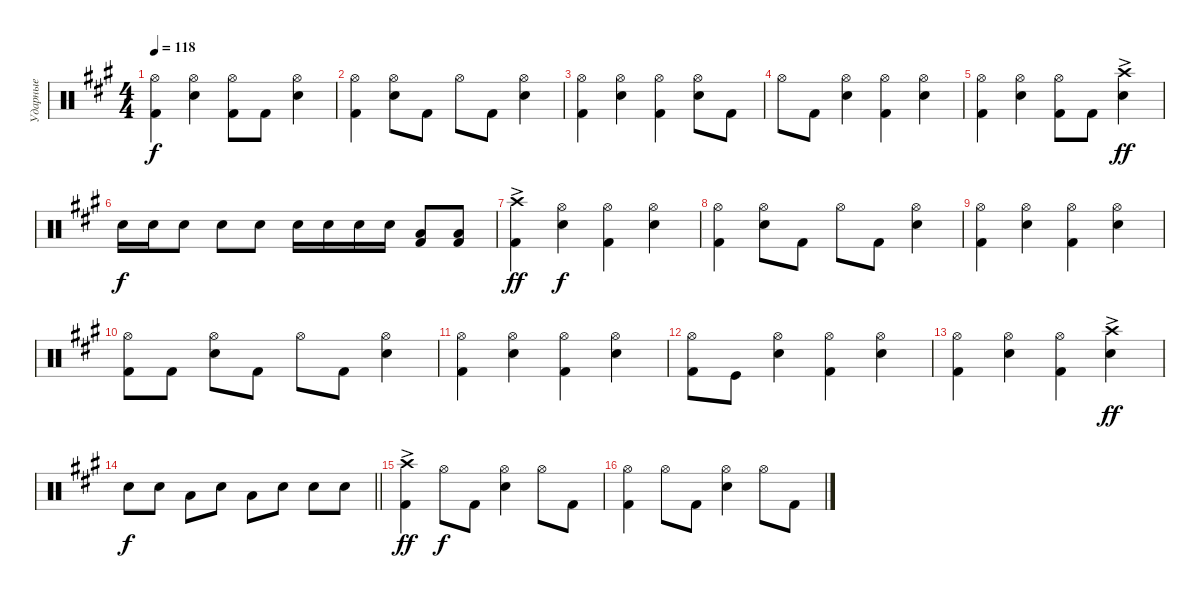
\track ("Ударные" "Ударные") {instrument percussion}
\staff {score}
\articulation defaults
\ts (4 4)
\tempo 118
\clef neutral
\ks a
("Kick (hit) 2" "Hi-Hat (open)").4{dy f} ("Snare (hit) 2" "Hi-Hat (open)").4 ("Kick (hit) 2" "Hi-Hat (open)").8 "Kick (hit) 2".8 ("Snare (hit) 2" "Hi-Hat (open)").4 |
("Kick (hit) 2" "Hi-Hat (open)").4 ("Snare (hit) 2" "Hi-Hat (open)").8 "Kick (hit) 2".8 "Hi-Hat (open)".8 "Kick (hit) 2".8 ("Snare (hit) 2" "Hi-Hat (open)").4 |
("Kick (hit) 2" "Hi-Hat (open)").4 ("Snare (hit) 2" "Hi-Hat (open)").4 ("Kick (hit) 2" "Hi-Hat (open)").4 ("Snare (hit) 2" "Hi-Hat (open)").8 "Kick (hit) 2".8 |
"Hi-Hat (open)".8 "Kick (hit) 2".8 ("Snare (hit) 2" "Hi-Hat (open)").4 ("Kick (hit) 2" "Hi-Hat (open)").4 ("Snare (hit) 2" "Hi-Hat (open)").4 |
("Kick (hit) 2" "Hi-Hat (open)").4 ("Snare (hit) 2" "Hi-Hat (open)").4 ("Kick (hit) 2" "Hi-Hat (open)").8 "Kick (hit) 2".8 ("Snare (hit) 2" "Crash high (hit)"{ac}).4{dy ff} |
"Snare (hit) 2".16{dy f} "Snare (hit) 2".16 "Snare (hit) 2".8 "Snare (hit) 2".8 "Snare (hit) 2".8 "Snare (hit) 2".16 "Snare (hit) 2".16 "Electric Snare (hit)".16 "Electric Snare (hit)".16 ("Kick (hit) 2" "Low Tom (hit)").8 ("Kick (hit) 2" "Low Tom (hit)").8 |
("Kick (hit) 2" "Crash high (hit)"{ac}).4{dy ff} ("Snare (hit) 2" "Hi-Hat (open)").4{dy f} ("Kick (hit) 2" "Hi-Hat (open)").4 ("Snare (hit) 2" "Hi-Hat (open)").4 |
("Kick (hit) 2" "Hi-Hat (open)").4 ("Snare (hit) 2" "Hi-Hat (open)").8 "Kick (hit) 2".8 "Hi-Hat (open)".8 "Kick (hit) 2".8 ("Snare (hit) 2" "Hi-Hat (open)").4 |
("Kick (hit) 2" "Hi-Hat (open)").4 ("Snare (hit) 2" "Hi-Hat (open)").4 ("Kick (hit) 2" "Hi-Hat (open)").4 ("Snare (hit) 2" "Hi-Hat (open)").4 |
("Kick (hit) 2" "Hi-Hat (open)").8 "Kick (hit) 2".8 ("Snare (hit) 2" "Hi-Hat (open)").8 "Kick (hit) 2".8 "Hi-Hat (open)".8 "Kick (hit) 2".8 ("Snare (hit) 2" "Hi-Hat (open)").4 |
("Kick (hit) 2" "Hi-Hat (open)").4 ("Snare (hit) 2" "Hi-Hat (open)").4 ("Kick (hit) 2" "Hi-Hat (open)").4 ("Snare (hit) 2" "Hi-Hat (open)").4 |
("Kick (hit) 2" "Hi-Hat (open)").8 "Kick (hit)".8 ("Snare (hit) 2" "Hi-Hat (open)").4 ("Kick (hit) 2" "Hi-Hat (open)").4 ("Snare (hit) 2" "Hi-Hat (open)").4 |
("Kick (hit) 2" "Hi-Hat (open)").4 ("Snare (hit) 2" "Hi-Hat (open)").4 ("Kick (hit) 2" "Hi-Hat (open)").4 ("Snare (hit) 2" "Crash high (hit)"{ac}).4{dy ff} |
\barLineRight lightlight "Snare (hit) 2".8{dy f} "Snare (hit) 2".8 "Low Tom (hit)".8 "Snare (hit) 2".8 "Low Tom (hit)".8 "Electric Snare (hit)".8 "Snare (hit) 2".8 "Snare (hit) 2".8
|
("Kick (hit) 2" "Crash high (hit)"{ac}).4{dy ff} "Hi-Hat (open)".8{dy f} "Kick (hit) 2".8 ("Snare (hit) 2" "Hi-Hat (open)").4 "Hi-Hat (open)".8 "Kick (hit) 2".8 |
("Kick (hit) 2" "Hi-Hat (open)").4 "Hi-Hat (open)".8 "Kick (hit) 2".8 ("Snare (hit) 2" "Hi-Hat (open)").4 "Hi-Hat (open)".8 "Kick (hit) 2".8
